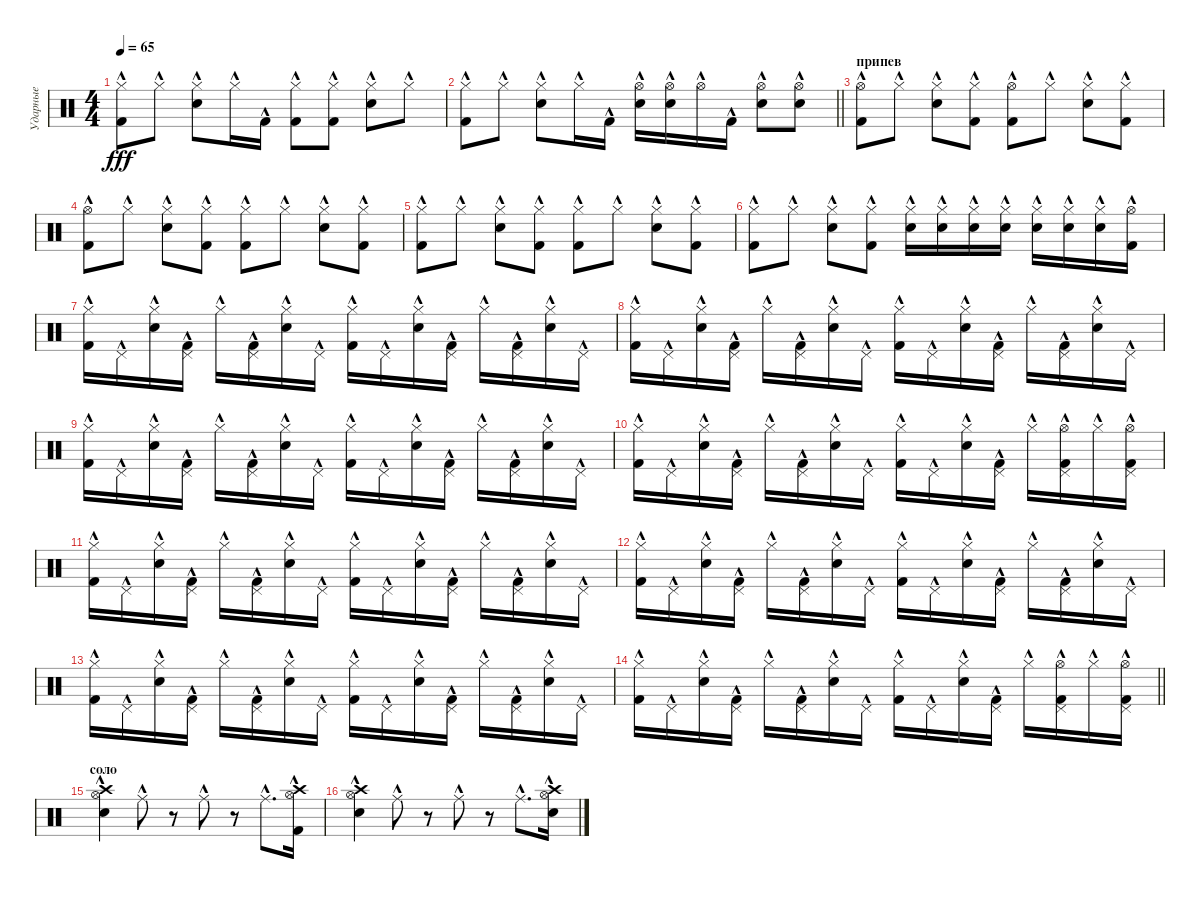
\track ("Ударные" "Ударные") {instrument percussion}
\staff {score}
\articulation defaults
\ts (4 4)
\tempo 65
\clef neutral
\ks c
("Hi-Hat (closed)"{hac} "Kick (hit) 2"{hac}).8{dy fff} "Hi-Hat (closed)"{hac}.8 ("Hi-Hat (closed)"{hac} "Electric Snare (hit)"{hac}).8 "Hi-Hat (closed)"{hac}.16 "Kick (hit) 2"{hac}.16 ("Hi-Hat (closed)"{hac} "Kick (hit) 2"{hac}).8 ("Hi-Hat (closed)"{hac} "Kick (hit) 2"{hac}).8 ("Hi-Hat (closed)"{hac} "Electric Snare (hit)"{hac}).8 "Hi-Hat (closed)"{hac}.8 |
\barLineRight lightlight
("Hi-Hat (closed)"{hac} "Kick (hit) 2"{hac}).8 "Hi-Hat (closed)"{hac}.8 ("Hi-Hat (closed)"{hac} "Electric Snare (hit)"{hac}).8 "Hi-Hat (closed)"{hac}.16 "Kick (hit) 2"{hac}.16 ("Hi-Hat (open)"{hac} "Electric Snare (hit)"{hac}).16 ("Hi-Hat (open)"{hac} "Electric Snare (hit)"{hac}).16 "Hi-Hat (open)"{hac}.16 "Kick (hit) 2"{hac}.16 ("Hi-Hat (open)"{hac} "Electric Snare (hit)"{hac}).8 ("Hi-Hat (open)"{hac} "Electric Snare (hit)"{hac}).8 |
\section ("" "припев")
("Hi-Hat (open)"{hac} "Kick (hit) 2"{hac}).8 "Hi-Hat (closed)"{hac}.8 ("Hi-Hat (closed)"{hac} "Electric Snare (hit)"{hac}).8 ("Hi-Hat (closed)"{hac} "Kick (hit) 2"{hac}).8 ("Hi-Hat (open)"{hac} "Kick (hit) 2"{hac}).8 "Hi-Hat (closed)"{hac}.8 ("Hi-Hat (closed)"{hac} "Electric Snare (hit)"{hac}).8 ("Hi-Hat (closed)"{hac} "Kick (hit) 2"{hac}).8 |
("Hi-Hat (open)"{hac} "Kick (hit) 2"{hac}).8 "Hi-Hat (closed)"{hac}.8 ("Hi-Hat (closed)"{hac} "Electric Snare (hit)"{hac}).8 ("Hi-Hat (closed)"{hac} "Kick (hit) 2"{hac}).8 ("Hi-Hat (closed)"{hac} "Kick (hit) 2"{hac}).8 "Hi-Hat (closed)"{hac}.8 ("Hi-Hat (closed)"{hac} "Electric Snare (hit)"{hac}).8 ("Hi-Hat (closed)"{hac} "Kick (hit) 2"{hac}).8 |
("Hi-Hat (closed)"{hac} "Kick (hit) 2"{hac}).8 "Hi-Hat (closed)"{hac}.8 ("Hi-Hat (closed)"{hac} "Electric Snare (hit)"{hac}).8 ("Hi-Hat (closed)"{hac} "Kick (hit) 2"{hac}).8 ("Hi-Hat (closed)"{hac} "Kick (hit) 2"{hac}).8 "Hi-Hat (closed)"{hac}.8 ("Hi-Hat (closed)"{hac} "Electric Snare (hit)"{hac}).8 ("Hi-Hat (closed)"{hac} "Kick (hit) 2"{hac}).8 |
("Hi-Hat (closed)"{hac} "Kick (hit) 2"{hac}).8 "Hi-Hat (closed)"{hac}.8 ("Hi-Hat (closed)"{hac} "Electric Snare (hit)"{hac}).8 ("Hi-Hat (closed)"{hac} "Kick (hit) 2"{hac}).8 ("Electric Snare (hit)"{hac} "Hi-Hat (closed)"{hac}).16 ("Electric Snare (hit)"{hac} "Hi-Hat (closed)"{hac}).16 ("Electric Snare (hit)"{hac} "Hi-Hat (closed)"{hac}).16 ("Electric Snare (hit)"{hac} "Hi-Hat (closed)"{hac}).16 ("Electric Snare (hit)"{hac} "Hi-Hat (closed)"{hac}).16 ("Electric Snare (hit)"{hac} "Hi-Hat (closed)"{hac}).16 ("Electric Snare (hit)"{hac} "Hi-Hat (closed)"{hac}).16 ("Hi-Hat (open)"{hac} "Kick (hit) 2"{hac}).16 |
("Hi-Hat (closed)"{hac} "Kick (hit) 2"{hac}).16 "Pedal Hi-Hat (hit)"{hac}.16 ("Hi-Hat (closed)"{hac} "Electric Snare (hit)"{hac}).16 ("Pedal Hi-Hat (hit)"{hac} "Kick (hit) 2"{hac}).16 "Hi-Hat (closed)"{hac}.16 ("Pedal Hi-Hat (hit)"{hac} "Kick (hit) 2"{hac}).16 ("Hi-Hat (closed)"{hac} "Electric Snare (hit)"{hac}).16 "Pedal Hi-Hat (hit)"{hac}.16 ("Hi-Hat (closed)"{hac} "Kick (hit) 2"{hac}).16 "Pedal Hi-Hat (hit)"{hac}.16 ("Hi-Hat (closed)"{hac} "Electric Snare (hit)"{hac}).16 ("Pedal Hi-Hat (hit)"{hac} "Kick (hit) 2"{hac}).16 "Hi-Hat (closed)"{hac}.16 ("Pedal Hi-Hat (hit)"{hac} "Kick (hit) 2"{hac}).16 ("Hi-Hat (closed)"{hac} "Electric Snare (hit)"{hac}).16 "Pedal Hi-Hat (hit)"{hac}.16 |
("Hi-Hat (closed)"{hac} "Kick (hit) 2"{hac}).16 "Pedal Hi-Hat (hit)"{hac}.16 ("Hi-Hat (closed)"{hac} "Electric Snare (hit)"{hac}).16 ("Pedal Hi-Hat (hit)"{hac} "Kick (hit) 2"{hac}).16 "Hi-Hat (closed)"{hac}.16 ("Pedal Hi-Hat (hit)"{hac} "Kick (hit) 2"{hac}).16 ("Hi-Hat (closed)"{hac} "Electric Snare (hit)"{hac}).16 "Pedal Hi-Hat (hit)"{hac}.16 ("Hi-Hat (closed)"{hac} "Kick (hit) 2"{hac}).16 "Pedal Hi-Hat (hit)"{hac}.16 ("Hi-Hat (closed)"{hac} "Electric Snare (hit)"{hac}).16 ("Pedal Hi-Hat (hit)"{hac} "Kick (hit) 2"{hac}).16 "Hi-Hat (closed)"{hac}.16 ("Pedal Hi-Hat (hit)"{hac} "Kick (hit) 2"{hac}).16 ("Hi-Hat (closed)"{hac} "Electric Snare (hit)"{hac}).16 "Pedal Hi-Hat (hit)"{hac}.16 |
("Hi-Hat (closed)"{hac} "Kick (hit) 2"{hac}).16 "Pedal Hi-Hat (hit)"{hac}.16 ("Hi-Hat (closed)"{hac} "Electric Snare (hit)"{hac}).16 ("Pedal Hi-Hat (hit)"{hac} "Kick (hit) 2"{hac}).16 "Hi-Hat (closed)"{hac}.16 ("Pedal Hi-Hat (hit)"{hac} "Kick (hit) 2"{hac}).16 ("Hi-Hat (closed)"{hac} "Electric Snare (hit)"{hac}).16 "Pedal Hi-Hat (hit)"{hac}.16 ("Hi-Hat (closed)"{hac} "Kick (hit) 2"{hac}).16 "Pedal Hi-Hat (hit)"{hac}.16 ("Hi-Hat (closed)"{hac} "Electric Snare (hit)"{hac}).16 ("Pedal Hi-Hat (hit)"{hac} "Kick (hit) 2"{hac}).16 "Hi-Hat (closed)"{hac}.16 ("Pedal Hi-Hat (hit)"{hac} "Kick (hit) 2"{hac}).16 ("Hi-Hat (closed)"{hac} "Electric Snare (hit)"{hac}).16 "Pedal Hi-Hat (hit)"{hac}.16 |
("Hi-Hat (closed)"{hac} "Kick (hit) 2"{hac}).16 "Pedal Hi-Hat (hit)"{hac}.16 ("Hi-Hat (closed)"{hac} "Electric Snare (hit)"{hac}).16 ("Pedal Hi-Hat (hit)"{hac} "Kick (hit) 2"{hac}).16 "Hi-Hat (closed)"{hac}.16 ("Pedal Hi-Hat (hit)"{hac} "Kick (hit) 2"{hac}).16 ("Hi-Hat (closed)"{hac} "Electric Snare (hit)"{hac}).16 "Pedal Hi-Hat (hit)"{hac}.16 ("Hi-Hat (closed)"{hac} "Kick (hit) 2"{hac}).16 "Pedal Hi-Hat (hit)"{hac}.16 ("Hi-Hat (closed)"{hac} "Electric Snare (hit)"{hac}).16 ("Pedal Hi-Hat (hit)"{hac} "Kick (hit) 2"{hac}).16 "Hi-Hat (closed)"{hac}.16 ("Pedal Hi-Hat (hit)"{hac} "Kick (hit) 2"{hac} "Hi-Hat (open)"{hac}).16 "Hi-Hat (closed)"{hac}.16 ("Pedal Hi-Hat (hit)"{hac} "Kick (hit) 2"{hac} "Hi-Hat (open)"{hac}).16 |
("Hi-Hat (closed)"{hac} "Kick (hit) 2"{hac}).16 "Pedal Hi-Hat (hit)"{hac}.16 ("Hi-Hat (closed)"{hac} "Electric Snare (hit)"{hac}).16 ("Pedal Hi-Hat (hit)"{hac} "Kick (hit) 2"{hac}).16 "Hi-Hat (closed)"{hac}.16 ("Pedal Hi-Hat (hit)"{hac} "Kick (hit) 2"{hac}).16 ("Hi-Hat (closed)"{hac} "Electric Snare (hit)"{hac}).16 "Pedal Hi-Hat (hit)"{hac}.16 ("Hi-Hat (closed)"{hac} "Kick (hit) 2"{hac}).16 "Pedal Hi-Hat (hit)"{hac}.16 ("Hi-Hat (closed)"{hac} "Electric Snare (hit)"{hac}).16 ("Pedal Hi-Hat (hit)"{hac} "Kick (hit) 2"{hac}).16 "Hi-Hat (closed)"{hac}.16 ("Pedal Hi-Hat (hit)"{hac} "Kick (hit) 2"{hac}).16 ("Hi-Hat (closed)"{hac} "Electric Snare (hit)"{hac}).16 "Pedal Hi-Hat (hit)"{hac}.16 |
("Hi-Hat (closed)"{hac} "Kick (hit) 2"{hac}).16 "Pedal Hi-Hat (hit)"{hac}.16 ("Hi-Hat (closed)"{hac} "Electric Snare (hit)"{hac}).16 ("Pedal Hi-Hat (hit)"{hac} "Kick (hit) 2"{hac}).16 "Hi-Hat (closed)"{hac}.16 ("Pedal Hi-Hat (hit)"{hac} "Kick (hit) 2"{hac}).16 ("Hi-Hat (closed)"{hac} "Electric Snare (hit)"{hac}).16 "Pedal Hi-Hat (hit)"{hac}.16 ("Hi-Hat (closed)"{hac} "Kick (hit) 2"{hac}).16 "Pedal Hi-Hat (hit)"{hac}.16 ("Hi-Hat (closed)"{hac} "Electric Snare (hit)"{hac}).16 ("Pedal Hi-Hat (hit)"{hac} "Kick (hit) 2"{hac}).16 "Hi-Hat (closed)"{hac}.16 ("Pedal Hi-Hat (hit)"{hac} "Kick (hit) 2"{hac}).16 ("Hi-Hat (closed)"{hac} "Electric Snare (hit)"{hac}).16 "Pedal Hi-Hat (hit)"{hac}.16 |
("Hi-Hat (closed)"{hac} "Kick (hit) 2"{hac}).16 "Pedal Hi-Hat (hit)"{hac}.16 ("Hi-Hat (closed)"{hac} "Electric Snare (hit)"{hac}).16 ("Pedal Hi-Hat (hit)"{hac} "Kick (hit) 2"{hac}).16 "Hi-Hat (closed)"{hac}.16 ("Pedal Hi-Hat (hit)"{hac} "Kick (hit) 2"{hac}).16 ("Hi-Hat (closed)"{hac} "Electric Snare (hit)"{hac}).16 "Pedal Hi-Hat (hit)"{hac}.16 ("Hi-Hat (closed)"{hac} "Kick (hit) 2"{hac}).16 "Pedal Hi-Hat (hit)"{hac}.16 ("Hi-Hat (closed)"{hac} "Electric Snare (hit)"{hac}).16 ("Pedal Hi-Hat (hit)"{hac} "Kick (hit) 2"{hac}).16 "Hi-Hat (closed)"{hac}.16 ("Pedal Hi-Hat (hit)"{hac} "Kick (hit) 2"{hac}).16 ("Hi-Hat (closed)"{hac} "Electric Snare (hit)"{hac}).16 "Pedal Hi-Hat (hit)"{hac}.16 |
\barLineRight lightlight
("Hi-Hat (closed)"{hac} "Kick (hit) 2"{hac}).16 "Pedal Hi-Hat (hit)"{hac}.16 ("Hi-Hat (closed)"{hac} "Electric Snare (hit)"{hac}).16 ("Pedal Hi-Hat (hit)"{hac} "Kick (hit) 2"{hac}).16 "Hi-Hat (closed)"{hac}.16 ("Pedal Hi-Hat (hit)"{hac} "Kick (hit) 2"{hac}).16 ("Hi-Hat (closed)"{hac} "Electric Snare (hit)"{hac}).16 "Pedal Hi-Hat (hit)"{hac}.16 ("Hi-Hat (closed)"{hac} "Kick (hit) 2"{hac}).16 "Pedal Hi-Hat (hit)"{hac}.16 ("Hi-Hat (closed)"{hac} "Electric Snare (hit)"{hac}).16 ("Pedal Hi-Hat (hit)"{hac} "Kick (hit) 2"{hac}).16 "Hi-Hat (closed)"{hac}.16 ("Pedal Hi-Hat (hit)"{hac} "Kick (hit) 2"{hac} "Hi-Hat (open)"{hac}).16 "Hi-Hat (closed)"{hac}.16 ("Pedal Hi-Hat (hit)"{hac} "Kick (hit) 2"{hac} "Hi-Hat (open)"{hac}).16 |
\section ("" "соло")
("Hi-Hat (open)"{hac} "Crash high (hit)"{hac} "Electric Snare (hit)"{hac}).4 "Ride (middle)"{hac}.8 r.8 "Ride (middle)"{hac}.8 r.8 "Ride (middle)"{hac}.8{d} ("Kick (hit) 2"{hac} "Hi-Hat (open)"{hac} "Crash high (hit)"{hac}).16 |
("Electric Snare (hit)"{hac} "Hi-Hat (open)"{hac} "Crash high (hit)"{hac}).4 "Ride (middle)"{hac}.8 r.8 "Ride (middle)"{hac}.8 r.8 "Ride (middle)"{hac}.8{d} ("Electric Snare (hit)"{hac} "Hi-Hat (open)"{hac} "Crash high (hit)"{hac}).16
